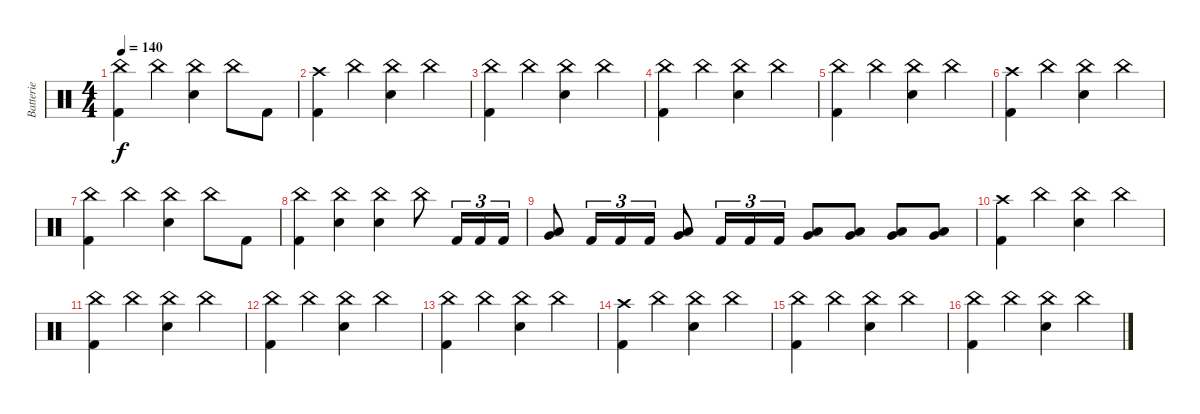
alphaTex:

\track ("Batterie" "Batterie") {instrument percussion}
\staff {score}
\articulation defaults
\ts (4 4)
\tempo 140
\clef neutral
\ks c
("China (hit)" "Kick (hit) 2").4{dy f} "China (hit)".4 ("China (hit)" "Electric Snare (hit)").4 "China (hit)".8 "Kick (hit) 2".8 |
("Crash high (hit)" "Kick (hit) 2").4 "China (hit)".4 ("China (hit)" "Electric Snare (hit)").4 "China (hit)".4 |
("China (hit)" "Kick (hit) 2").4 "China (hit)".4 ("China (hit)" "Electric Snare (hit)").4 "China (hit)".4 |
("China (hit)" "Kick (hit) 2").4 "China (hit)".4 ("China (hit)" "Electric Snare (hit)").4 "China (hit)".4 |
("China (hit)" "Kick (hit) 2").4 "China (hit)".4 ("China (hit)" "Electric Snare (hit)").4 "China (hit)".4 |
("Crash high (hit)" "Kick (hit) 2").4 "China (hit)".4 ("China (hit)" "Electric Snare (hit)").4 "China (hit)".4 |
("China (hit)" "Kick (hit) 2").4 "China (hit)".4 ("China (hit)" "Electric Snare (hit)").4 "China (hit)".8 "Kick (hit) 2".8 |
("China (hit)" "Kick (hit) 2").4 ("China (hit)" "Electric Snare (hit)").4 ("China (hit)" "Electric Snare (hit)").4 "China (hit)".8 "Kick (hit) 2".16{tu (3 2)} "Kick (hit) 2".16{tu (3 2)} "Kick (hit) 2".16{tu (3 2)} |
("Low Tom (hit)" "Very Low Tom (hit)").8{bu 60} "Kick (hit) 2".16{tu (3 2)} "Kick (hit) 2".16{tu (3 2)} "Kick (hit) 2".16{tu (3 2)} ("Low Tom (hit)" "Very Low Tom (hit)").8{bu 60} "Kick (hit) 2".16{tu (3 2)} "Kick (hit) 2".16{tu (3 2)} "Kick (hit) 2".16{tu (3 2)} ("Low Tom (hit)" "Very Low Tom (hit)").8{bu 60} ("Low Tom (hit)" "Very Low Tom (hit)").8{bu 60} ("Very Low Tom (hit)" "Low Floor Tom (hit)").8{bu 60} ("Very Low Tom (hit)" "Low Floor Tom (hit)").8{bu 60} |
("Crash high (hit)" "Kick (hit) 2").4 "China (hit)".4 ("China (hit)" "Electric Snare (hit)").4 "China (hit)".4 |
("China (hit)" "Kick (hit) 2").4 "China (hit)".4 ("China (hit)" "Electric Snare (hit)").4 "China (hit)".4 |
("China (hit)" "Kick (hit) 2").4 "China (hit)".4 ("China (hit)" "Electric Snare (hit)").4 "China (hit)".4 |
("China (hit)" "Kick (hit) 2").4 "China (hit)".4 ("China (hit)" "Electric Snare (hit)").4 "China (hit)".4 |
("Crash high (hit)" "Kick (hit) 2").4 "China (hit)".4 ("China (hit)" "Electric Snare (hit)").4 "China (hit)".4 |
("China (hit)" "Kick (hit) 2").4 "China (hit)".4 ("China (hit)" "Electric Snare (hit)").4 "China (hit)".4 |
("China (hit)" "Kick (hit) 2").4 "China (hit)".4 ("China (hit)" "Electric Snare (hit)").4 "China (hit)".4
